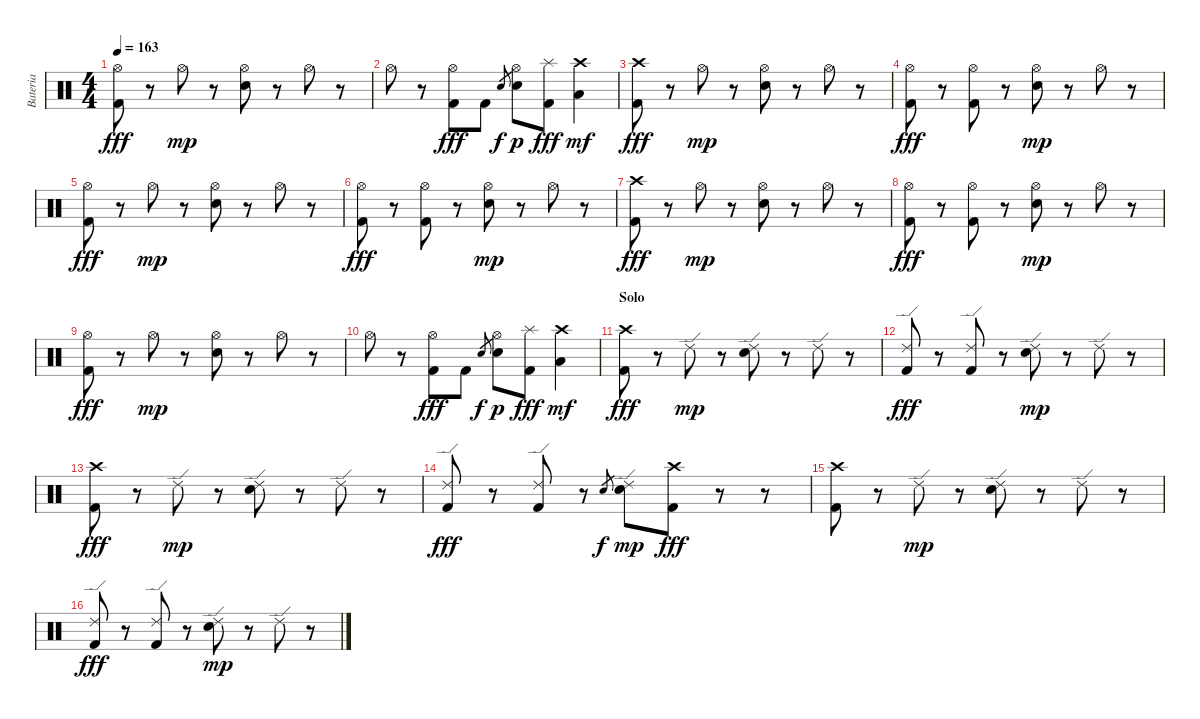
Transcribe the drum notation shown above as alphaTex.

\track ("Bateria" "Bateria") {instrument percussion}
\staff {score}
\articulation defaults
\ts (4 4)
\tempo 163
\clef neutral
\ks c
("Hi-Hat (open)" "Kick (hit) 2").8{dy fff} r.8 "Hi-Hat (open)".8{dy mp} r.8 ("Hi-Hat (open)" "Electric Snare (hit)").8 r.8 "Hi-Hat (open)".8 r.8 |
"Hi-Hat (open)".8 r.8 ("Hi-Hat (open)" "Kick (hit) 2").8{dy fff} "Kick (hit) 2".8 "Electric Snare (hit)".8{gr dy f} ("Hi-Hat (open)" "Electric Snare (hit)").8{dy p} ("Splash (hit)" "Kick (hit) 2").8{dy fff} ("Crash high (hit)" "Low Tom (hit)").4{dy mf} |
("Crash high (hit)" "Kick (hit) 2").8{dy fff} r.8 "Hi-Hat (open)".8{dy mp} r.8 ("Hi-Hat (open)" "Electric Snare (hit)").8 r.8 "Hi-Hat (open)".8 r.8 |
("Hi-Hat (open)" "Kick (hit) 2").8{dy fff} r.8 ("Hi-Hat (open)" "Kick (hit) 2").8 r.8 ("Hi-Hat (open)" "Electric Snare (hit)").8{dy mp} r.8 "Hi-Hat (open)".8 r.8 |
("Hi-Hat (open)" "Kick (hit) 2").8{dy fff} r.8 "Hi-Hat (open)".8{dy mp} r.8 ("Hi-Hat (open)" "Electric Snare (hit)").8 r.8 "Hi-Hat (open)".8 r.8 |
("Hi-Hat (open)" "Kick (hit) 2").8{dy fff} r.8 ("Hi-Hat (open)" "Kick (hit) 2").8 r.8 ("Hi-Hat (open)" "Electric Snare (hit)").8{dy mp} r.8 "Hi-Hat (open)".8 r.8 |
("Crash high (hit)" "Kick (hit) 2").8{dy fff} r.8 "Hi-Hat (open)".8{dy mp} r.8 ("Hi-Hat (open)" "Electric Snare (hit)").8 r.8 "Hi-Hat (open)".8 r.8 |
("Hi-Hat (open)" "Kick (hit) 2").8{dy fff} r.8 ("Hi-Hat (open)" "Kick (hit) 2").8 r.8 ("Hi-Hat (open)" "Electric Snare (hit)").8{dy mp} r.8 "Hi-Hat (open)".8 r.8 |
("Hi-Hat (open)" "Kick (hit) 2").8{dy fff} r.8 "Hi-Hat (open)".8{dy mp} r.8 ("Hi-Hat (open)" "Electric Snare (hit)").8 r.8 "Hi-Hat (open)".8 r.8 |
"Hi-Hat (open)".8 r.8 ("Hi-Hat (open)" "Kick (hit) 2").8{dy fff} "Kick (hit) 2".8 "Electric Snare (hit)".8{gr dy f} ("Hi-Hat (open)" "Electric Snare (hit)").8{dy p} ("Splash (hit)" "Kick (hit) 2").8{dy fff} ("Crash high (hit)" "Low Tom (hit)").4{dy mf} |
\section ("" "Solo")
("Crash high (hit)" "Kick (hit) 2").8{dy fff} r.8 "Ride (edge) 2".8{dy mp} r.8 ("Ride (edge) 2" "Electric Snare (hit)").8 r.8 "Ride (edge) 2".8 r.8 |
("Ride (edge) 2" "Kick (hit) 2").8{dy fff} r.8 ("Ride (edge) 2" "Kick (hit) 2").8 r.8 ("Ride (edge) 2" "Electric Snare (hit)").8{dy mp} r.8 "Ride (edge) 2".8 r.8 |
("Crash high (hit)" "Kick (hit) 2").8{dy fff} r.8 "Ride (edge) 2".8{dy mp} r.8 ("Ride (edge) 2" "Electric Snare (hit)").8 r.8 "Ride (edge) 2".8 r.8 |
("Ride (edge) 2" "Kick (hit) 2").8{dy fff} r.8 ("Ride (edge) 2" "Kick (hit) 2").8 r.8 "Electric Snare (hit)".8{gr dy f} ("Ride (edge) 2" "Electric Snare (hit)").8{dy mp} ("Crash high (hit)" "Kick (hit) 2").8{dy fff} r.8 r.8 |
("Crash high (hit)" "Kick (hit) 2").8 r.8 "Ride (edge) 2".8{dy mp} r.8 ("Ride (edge) 2" "Electric Snare (hit)").8 r.8 "Ride (edge) 2".8 r.8 |
("Ride (edge) 2" "Kick (hit) 2").8{dy fff} r.8 ("Ride (edge) 2" "Kick (hit) 2").8 r.8 ("Ride (edge) 2" "Electric Snare (hit)").8{dy mp} r.8 "Ride (edge) 2".8 r.8
